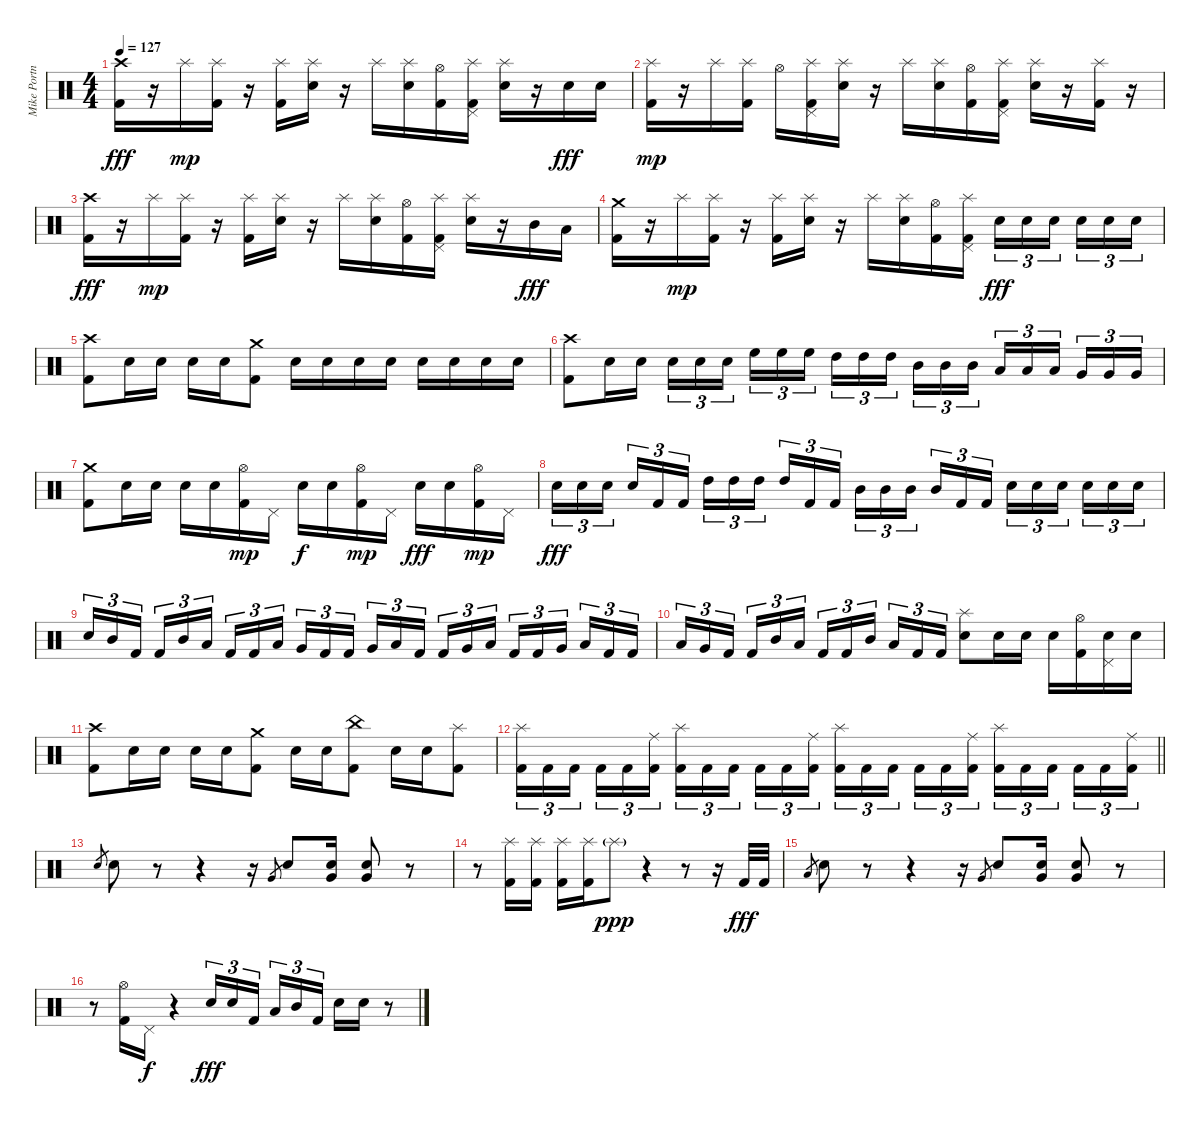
\track ("Mike Portnoy" "Mike Portn") {instrument percussion}
\staff {score}
\articulation defaults
\ts (4 4)
\tempo 127
\clef neutral
\ks c
("Kick (hit) 2" "Crash high (hit)").16{dy fff} r.16 "Splash (hit)".16{dy mp} ("Kick (hit) 2" "Splash (hit)").16 r.16 ("Kick (hit) 2" "Splash (hit)").16 ("Electric Snare (hit)" "Splash (hit)").16 r.16 "Splash (hit)".16 ("Electric Snare (hit)" "Splash (hit)").16 ("Kick (hit) 2" "Hi-Hat (open)").16 ("Kick (hit) 2" "Splash (hit)" "Pedal Hi-Hat (hit)").16 ("Electric Snare (hit)" "Splash (hit)").16 r.16 "Electric Snare (hit)".16{dy fff} "Electric Snare (hit)".16 |
("Kick (hit) 2" "Splash (hit)").16{dy mp} r.16 "Splash (hit)".16 ("Kick (hit) 2" "Splash (hit)").16 "Hi-Hat (open)".16 ("Kick (hit) 2" "Splash (hit)" "Pedal Hi-Hat (hit)").16 ("Electric Snare (hit)" "Splash (hit)").16 r.16 "Splash (hit)".16 ("Electric Snare (hit)" "Splash (hit)").16 ("Kick (hit) 2" "Hi-Hat (open)").16 ("Kick (hit) 2" "Splash (hit)" "Pedal Hi-Hat (hit)").16 ("Electric Snare (hit)" "Splash (hit)").16 r.16 ("Kick (hit) 2" "Splash (hit)").16 r.16 |
("Kick (hit) 2" "Crash high (hit)").16{dy fff} r.16 "Splash (hit)".16{dy mp} ("Kick (hit) 2" "Splash (hit)").16 r.16 ("Kick (hit) 2" "Splash (hit)").16 ("Electric Snare (hit)" "Splash (hit)").16 r.16 "Splash (hit)".16 ("Electric Snare (hit)" "Splash (hit)").16 ("Kick (hit) 2" "Hi-Hat (open)").16 ("Kick (hit) 2" "Splash (hit)" "Pedal Hi-Hat (hit)").16 ("Electric Snare (hit)" "Splash (hit)").16 r.16 "Mid Tom (hit)".16{dy fff} "Low Tom (hit)".16 |
("Kick (hit) 2" "Crash medium (hit)").16 r.16 "Splash (hit)".16{dy mp} ("Kick (hit) 2" "Splash (hit)").16 r.16 ("Kick (hit) 2" "Splash (hit)").16 ("Electric Snare (hit)" "Splash (hit)").16 r.16 "Splash (hit)".16 ("Electric Snare (hit)" "Splash (hit)").16 ("Kick (hit) 2" "Hi-Hat (open)").16 ("Kick (hit) 2" "Splash (hit)" "Pedal Hi-Hat (hit)").16 "Electric Snare (hit)".16{tu (3 2) dy fff} "Electric Snare (hit)".16{tu (3 2)} "Electric Snare (hit)".16{tu (3 2) beam splitsecondary} "Electric Snare (hit)".16{tu (3 2)} "Electric Snare (hit)".16{tu (3 2)} "Electric Snare (hit)".16{tu (3 2)} |
("Kick (hit) 2" "Crash high (hit)").8 "Electric Snare (hit)".16 "Electric Snare (hit)".16 "Electric Snare (hit)".16 "Electric Snare (hit)".16 ("Kick (hit) 2" "Crash medium (hit)").8 "Electric Snare (hit)".16 "Electric Snare (hit)".16 "Electric Snare (hit)".16 "Electric Snare (hit)".16 "Electric Snare (hit)".16 "Electric Snare (hit)".16 "Electric Snare (hit)".16 "Electric Snare (hit)".16 |
("Kick (hit) 2" "Crash high (hit)").8 "Electric Snare (hit)".16 "Electric Snare (hit)".16 "Electric Snare (hit)".16{tu (3 2)} "Electric Snare (hit)".16{tu (3 2)} "Electric Snare (hit)".16{tu (3 2) beam splitsecondary} "High Floor Tom (hit)".16{tu (3 2)} "High Floor Tom (hit)".16{tu (3 2)} "High Floor Tom (hit)".16{tu (3 2)} "High Tom (hit)".16{tu (3 2)} "High Tom (hit)".16{tu (3 2)} "High Tom (hit)".16{tu (3 2) beam splitsecondary} "Mid Tom (hit)".16{tu (3 2)} "Mid Tom (hit)".16{tu (3 2)} "Mid Tom (hit)".16{tu (3 2)} "Low Tom (hit)".16{tu (3 2)} "Low Tom (hit)".16{tu (3 2)} "Low Tom (hit)".16{tu (3 2) beam splitsecondary} "Very Low Tom (hit)".16{tu (3 2)} "Very Low Tom (hit)".16{tu (3 2)} "Very Low Tom (hit)".16{tu (3 2)} |
("Kick (hit) 2" "Crash medium (hit)").8 "Electric Snare (hit)".16 "Electric Snare (hit)".16 "Electric Snare (hit)".16 "Electric Snare (hit)".16 ("Kick (hit) 2" "Hi-Hat (open)").16{dy mp} "Pedal Hi-Hat (hit)".16 "Electric Snare (hit)".16{dy f} "Electric Snare (hit)".16 ("Kick (hit) 2" "Hi-Hat (open)").16{dy mp} "Pedal Hi-Hat (hit)".16 "Electric Snare (hit)".16{dy fff} "Electric Snare (hit)".16 ("Kick (hit) 2" "Hi-Hat (open)").16{dy mp} "Pedal Hi-Hat (hit)".16 |
"Electric Snare (hit)".16{tu (3 2) dy fff} "Electric Snare (hit)".16{tu (3 2)} "Electric Snare (hit)".16{tu (3 2) beam splitsecondary} "Electric Snare (hit)".16{tu (3 2)} "Kick (hit) 2".16{tu (3 2)} "Kick (hit) 2".16{tu (3 2)} "High Tom (hit)".16{tu (3 2)} "High Tom (hit)".16{tu (3 2)} "High Tom (hit)".16{tu (3 2) beam splitsecondary} "High Tom (hit)".16{tu (3 2)} "Kick (hit) 2".16{tu (3 2)} "Kick (hit) 2".16{tu (3 2)} "Mid Tom (hit)".16{tu (3 2)} "Mid Tom (hit)".16{tu (3 2)} "Mid Tom (hit)".16{tu (3 2) beam splitsecondary} "Mid Tom (hit)".16{tu (3 2)} "Kick (hit) 2".16{tu (3 2)} "Kick (hit) 2".16{tu (3 2)} "Electric Snare (hit)".16{tu (3 2)} "Electric Snare (hit)".16{tu (3 2)} "Electric Snare (hit)".16{tu (3 2) beam splitsecondary} "Electric Snare (hit)".16{tu (3 2)} "Electric Snare (hit)".16{tu (3 2)} "Electric Snare (hit)".16{tu (3 2)} |
"Electric Snare (hit)".16{tu (3 2)} "Mid Tom (hit)".16{tu (3 2)} "Kick (hit) 2".16{tu (3 2) beam splitsecondary} "Kick (hit) 2".16{tu (3 2)} "Mid Tom (hit)".16{tu (3 2)} "Low Tom (hit)".16{tu (3 2)} "Kick (hit) 2".16{tu (3 2)} "Kick (hit) 2".16{tu (3 2)} "Low Tom (hit)".16{tu (3 2) beam splitsecondary} "Very Low Tom (hit)".16{tu (3 2)} "Kick (hit) 2".16{tu (3 2)} "Kick (hit) 2".16{tu (3 2)} "Very Low Tom (hit)".16{tu (3 2)} "Low Floor Tom (hit)".16{tu (3 2)} "Kick (hit) 2".16{tu (3 2) beam splitsecondary} "Kick (hit) 2".16{tu (3 2)} "Very Low Tom (hit)".16{tu (3 2)} "Low Floor Tom (hit)".16{tu (3 2)} "Kick (hit) 2".16{tu (3 2)} "Kick (hit) 2".16{tu (3 2)} "Very Low Tom (hit)".16{tu (3 2) beam splitsecondary} "Low Floor Tom (hit)".16{tu (3 2)} "Kick (hit) 2".16{tu (3 2)} "Kick (hit) 2".16{tu (3 2)} |
"Low Tom (hit)".16{tu (3 2)} "Very Low Tom (hit)".16{tu (3 2)} "Kick (hit) 2".16{tu (3 2) beam splitsecondary} "Kick (hit) 2".16{tu (3 2)} "Mid Tom (hit)".16{tu (3 2)} "Low Tom (hit)".16{tu (3 2)} "Kick (hit) 2".16{tu (3 2)} "Kick (hit) 2".16{tu (3 2)} "Mid Tom (hit)".16{tu (3 2) beam splitsecondary} "Low Tom (hit)".16{tu (3 2)} "Kick (hit) 2".16{tu (3 2)} "Kick (hit) 2".16{tu (3 2)} ("Electric Snare (hit)" "Splash (hit)").8 "Electric Snare (hit)".16 "Electric Snare (hit)".16 "Electric Snare (hit)".16 ("Kick (hit) 2" "Hi-Hat (open)").16 ("Electric Snare (hit)" "Pedal Hi-Hat (hit)").16 "Electric Snare (hit)".16 |
("Kick (hit) 2" "Crash high (hit)").8 "Electric Snare (hit)".16 "Electric Snare (hit)".16 "Electric Snare (hit)".16 "Electric Snare (hit)".16 ("Kick (hit) 2" "Crash medium (hit)").8 "Electric Snare (hit)".16 "Electric Snare (hit)".16 ("Kick (hit) 2" "China (hit)").8 "Electric Snare (hit)".16 "Electric Snare (hit)".16 ("Kick (hit) 2" "Splash (hit)").8 |
\barLineRight lightlight
("Kick (hit) 2" "Splash (hit)").16{tu (3 2)} "Kick (hit) 2".16{tu (3 2)} "Kick (hit) 2".16{tu (3 2) beam splitsecondary} "Kick (hit) 2".16{tu (3 2)} "Kick (hit) 2".16{tu (3 2)} ("Kick (hit) 2" "Ride (middle)").16{tu (3 2)} ("Kick (hit) 2" "Splash (hit)").16{tu (3 2)} "Kick (hit) 2".16{tu (3 2)} "Kick (hit) 2".16{tu (3 2) beam splitsecondary} "Kick (hit) 2".16{tu (3 2)} "Kick (hit) 2".16{tu (3 2)} ("Kick (hit) 2" "Ride (middle)").16{tu (3 2)} ("Kick (hit) 2" "Splash (hit)").16{tu (3 2)} "Kick (hit) 2".16{tu (3 2)} "Kick (hit) 2".16{tu (3 2) beam splitsecondary} "Kick (hit) 2".16{tu (3 2)} "Kick (hit) 2".16{tu (3 2)} ("Kick (hit) 2" "Ride (middle)").16{tu (3 2)} ("Kick (hit) 2" "Splash (hit)").16{tu (3 2)} "Kick (hit) 2".16{tu (3 2)} "Kick (hit) 2".16{tu (3 2) beam splitsecondary} "Kick (hit) 2".16{tu (3 2)} "Kick (hit) 2".16{tu (3 2)} ("Kick (hit) 2" "Ride (middle)").16{tu (3 2)} |
"Electric Snare (hit)".8{gr} "Electric Snare (hit)".8 r.8 r.4 r.16 "Very Low Tom (hit)".8{gr} "Electric Snare (hit)".8 ("Electric Snare (hit)" "Very Low Tom (hit)").16 ("Electric Snare (hit)" "Very Low Tom (hit)").8 r.8 |
r.8 ("Kick (hit) 2" "Splash (hit)").16 ("Kick (hit) 2" "Splash (hit)").16 ("Kick (hit) 2" "Splash (hit)").16 ("Kick (hit) 2" "Splash (hit)").16 "Splash (hit)"{g}.8{dy ppp} r.4 r.8 r.16 "Kick (hit) 2".32{dy fff} "Kick (hit) 2".32 |
"Low Floor Tom (hit)".8{gr} "Electric Snare (hit)".8 r.8 r.4 r.16 "Very Low Tom (hit)".8{gr} "Electric Snare (hit)".8 ("Electric Snare (hit)" "Very Low Tom (hit)").16 ("Electric Snare (hit)" "Very Low Tom (hit)").8 r.8 |
r.8 ("Kick (hit) 2" "Hi-Hat (open)").16 "Pedal Hi-Hat (hit)".16{dy f} r.4 "Electric Snare (hit)".16{tu (3 2) dy fff} "Electric Snare (hit)".16{tu (3 2)} "Kick (hit) 2".16{tu (3 2) beam splitsecondary} "Low Tom (hit)".16{tu (3 2)} "Mid Tom (hit)".16{tu (3 2)} "Kick (hit) 2".16{tu (3 2)} "Electric Snare (hit)".16 "Electric Snare (hit)".16 r.8
